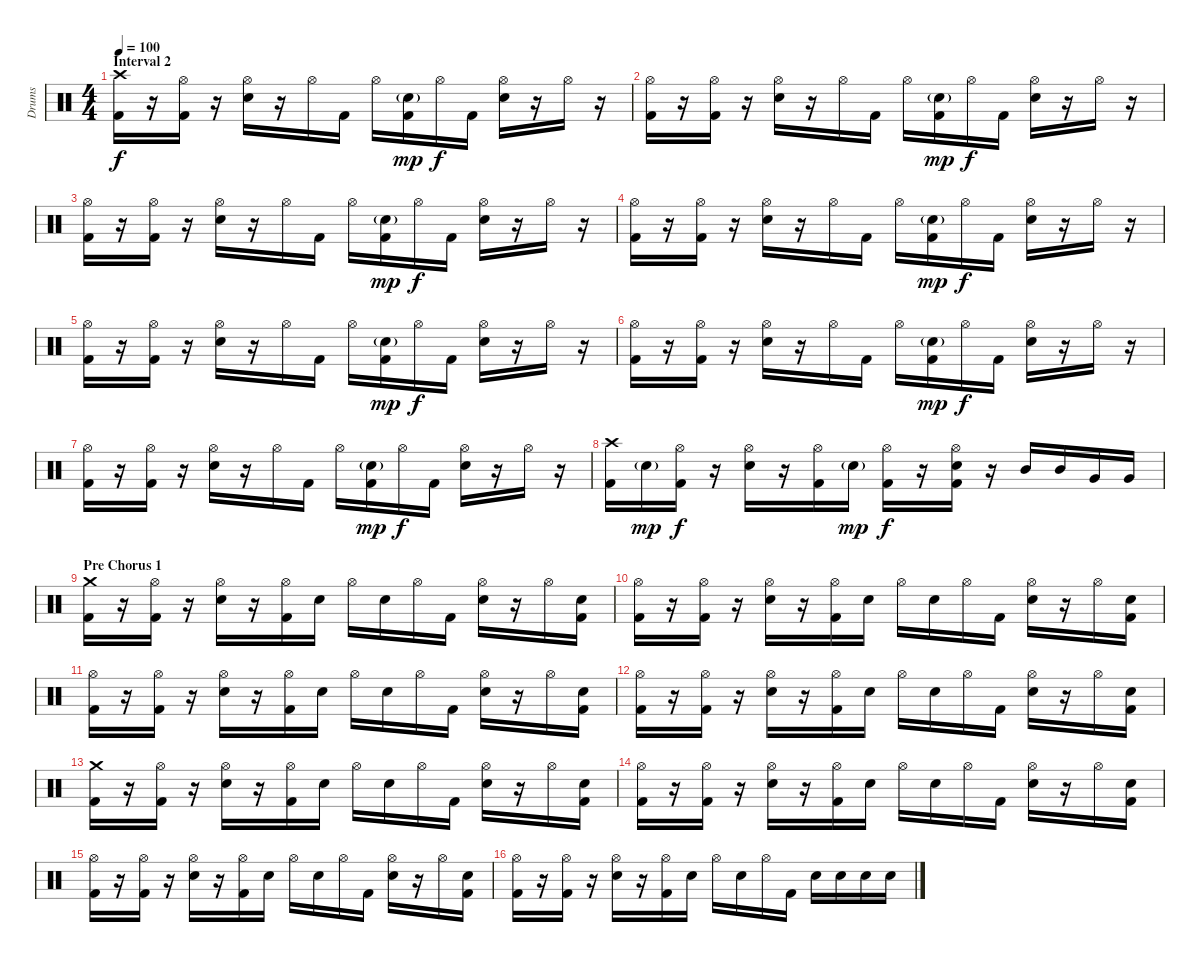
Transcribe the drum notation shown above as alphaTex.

\track ("Drums" "Drums") {instrument percussion}
\staff {score}
\articulation defaults
\ts (4 4)
\section ("" "Interval 2")
\tempo 100
\clef neutral
\ks c
("Crash high (hit)" "Kick (hit) 2").16{dy f} r.16 ("Hi-Hat (open)" "Kick (hit) 2").16 r.16 ("Hi-Hat (open)" "Snare (hit) 2").16 r.16 "Hi-Hat (open)".16 "Kick (hit) 2".16 "Hi-Hat (open)".16 ("Snare (hit) 2"{g} "Kick (hit) 2").16{dy mp} "Hi-Hat (open)".16{dy f} "Kick (hit) 2".16 ("Hi-Hat (open)" "Snare (hit) 2").16 r.16 "Hi-Hat (open)".16 r.16 |
("Hi-Hat (open)" "Kick (hit) 2").16 r.16 ("Hi-Hat (open)" "Kick (hit) 2").16 r.16 ("Hi-Hat (open)" "Snare (hit) 2").16 r.16 "Hi-Hat (open)".16 "Kick (hit) 2".16 "Hi-Hat (open)".16 ("Snare (hit) 2"{g} "Kick (hit) 2").16{dy mp} "Hi-Hat (open)".16{dy f} "Kick (hit) 2".16 ("Hi-Hat (open)" "Snare (hit) 2").16 r.16 "Hi-Hat (open)".16 r.16 |
("Hi-Hat (open)" "Kick (hit) 2").16 r.16 ("Hi-Hat (open)" "Kick (hit) 2").16 r.16 ("Hi-Hat (open)" "Snare (hit) 2").16 r.16 "Hi-Hat (open)".16 "Kick (hit) 2".16 "Hi-Hat (open)".16 ("Snare (hit) 2"{g} "Kick (hit) 2").16{dy mp} "Hi-Hat (open)".16{dy f} "Kick (hit) 2".16 ("Hi-Hat (open)" "Snare (hit) 2").16 r.16 "Hi-Hat (open)".16 r.16 |
("Hi-Hat (open)" "Kick (hit) 2").16 r.16 ("Hi-Hat (open)" "Kick (hit) 2").16 r.16 ("Hi-Hat (open)" "Snare (hit) 2").16 r.16 "Hi-Hat (open)".16 "Kick (hit) 2".16 "Hi-Hat (open)".16 ("Snare (hit) 2"{g} "Kick (hit) 2").16{dy mp} "Hi-Hat (open)".16{dy f} "Kick (hit) 2".16 ("Hi-Hat (open)" "Snare (hit) 2").16 r.16 "Hi-Hat (open)".16 r.16 |
("Hi-Hat (open)" "Kick (hit) 2").16 r.16 ("Hi-Hat (open)" "Kick (hit) 2").16 r.16 ("Hi-Hat (open)" "Snare (hit) 2").16 r.16 "Hi-Hat (open)".16 "Kick (hit) 2".16 "Hi-Hat (open)".16 ("Snare (hit) 2"{g} "Kick (hit) 2").16{dy mp} "Hi-Hat (open)".16{dy f} "Kick (hit) 2".16 ("Hi-Hat (open)" "Snare (hit) 2").16 r.16 "Hi-Hat (open)".16 r.16 |
("Hi-Hat (open)" "Kick (hit) 2").16 r.16 ("Hi-Hat (open)" "Kick (hit) 2").16 r.16 ("Hi-Hat (open)" "Snare (hit) 2").16 r.16 "Hi-Hat (open)".16 "Kick (hit) 2".16 "Hi-Hat (open)".16 ("Snare (hit) 2"{g} "Kick (hit) 2").16{dy mp} "Hi-Hat (open)".16{dy f} "Kick (hit) 2".16 ("Hi-Hat (open)" "Snare (hit) 2").16 r.16 "Hi-Hat (open)".16 r.16 |
("Hi-Hat (open)" "Kick (hit) 2").16 r.16 ("Hi-Hat (open)" "Kick (hit) 2").16 r.16 ("Hi-Hat (open)" "Snare (hit) 2").16 r.16 "Hi-Hat (open)".16 "Kick (hit) 2".16 "Hi-Hat (open)".16 ("Snare (hit) 2"{g} "Kick (hit) 2").16{dy mp} "Hi-Hat (open)".16{dy f} "Kick (hit) 2".16 ("Hi-Hat (open)" "Snare (hit) 2").16 r.16 "Hi-Hat (open)".16 r.16 |
("Crash high (hit)" "Kick (hit) 2").16 "Snare (hit) 2"{g}.16{dy mp} ("Hi-Hat (open)" "Kick (hit) 2").16{dy f} r.16 ("Hi-Hat (open)" "Snare (hit) 2").16 r.16 ("Hi-Hat (open)" "Kick (hit) 2").16 "Snare (hit) 2"{g}.16{dy mp} ("Hi-Hat (open)" "Kick (hit) 2").16{dy f} r.16 ("Hi-Hat (open)" "Snare (hit) 2" "Kick (hit) 2").16 r.16 "Mid Tom (hit)".16 "Mid Tom (hit)".16 "Very Low Tom (hit)".16 "Very Low Tom (hit)".16 |
\section ("" "Pre Chorus 1")
("Crash medium (hit)" "Kick (hit) 2").16 r.16 ("Hi-Hat (open)" "Kick (hit) 2").16 r.16 ("Hi-Hat (open)" "Snare (hit) 2").16 r.16 ("Hi-Hat (open)" "Kick (hit) 2").16 "Snare (hit) 2".16 "Hi-Hat (open)".16 "Snare (hit) 2".16 "Hi-Hat (open)".16 "Kick (hit) 2".16 ("Hi-Hat (open)" "Snare (hit) 2").16 r.16 "Hi-Hat (open)".16 ("Snare (hit) 2" "Kick (hit) 2").16 |
("Hi-Hat (open)" "Kick (hit) 2").16 r.16 ("Hi-Hat (open)" "Kick (hit) 2").16 r.16 ("Hi-Hat (open)" "Snare (hit) 2").16 r.16 ("Hi-Hat (open)" "Kick (hit) 2").16 "Snare (hit) 2".16 "Hi-Hat (open)".16 "Snare (hit) 2".16 "Hi-Hat (open)".16 "Kick (hit) 2".16 ("Hi-Hat (open)" "Snare (hit) 2").16 r.16 "Hi-Hat (open)".16 ("Snare (hit) 2" "Kick (hit) 2").16 |
("Hi-Hat (open)" "Kick (hit) 2").16 r.16 ("Hi-Hat (open)" "Kick (hit) 2").16 r.16 ("Hi-Hat (open)" "Snare (hit) 2").16 r.16 ("Hi-Hat (open)" "Kick (hit) 2").16 "Snare (hit) 2".16 "Hi-Hat (open)".16 "Snare (hit) 2".16 "Hi-Hat (open)".16 "Kick (hit) 2".16 ("Hi-Hat (open)" "Snare (hit) 2").16 r.16 "Hi-Hat (open)".16 ("Snare (hit) 2" "Kick (hit) 2").16 |
("Hi-Hat (open)" "Kick (hit) 2").16 r.16 ("Hi-Hat (open)" "Kick (hit) 2").16 r.16 ("Hi-Hat (open)" "Snare (hit) 2").16 r.16 ("Hi-Hat (open)" "Kick (hit) 2").16 "Snare (hit) 2".16 "Hi-Hat (open)".16 "Snare (hit) 2".16 "Hi-Hat (open)".16 "Kick (hit) 2".16 ("Hi-Hat (open)" "Snare (hit) 2").16 r.16 "Hi-Hat (open)".16 ("Snare (hit) 2" "Kick (hit) 2").16 |
("Crash medium (hit)" "Kick (hit) 2").16 r.16 ("Hi-Hat (open)" "Kick (hit) 2").16 r.16 ("Hi-Hat (open)" "Snare (hit) 2").16 r.16 ("Hi-Hat (open)" "Kick (hit) 2").16 "Snare (hit) 2".16 "Hi-Hat (open)".16 "Snare (hit) 2".16 "Hi-Hat (open)".16 "Kick (hit) 2".16 ("Hi-Hat (open)" "Snare (hit) 2").16 r.16 "Hi-Hat (open)".16 ("Snare (hit) 2" "Kick (hit) 2").16 |
("Hi-Hat (open)" "Kick (hit) 2").16 r.16 ("Hi-Hat (open)" "Kick (hit) 2").16 r.16 ("Hi-Hat (open)" "Snare (hit) 2").16 r.16 ("Hi-Hat (open)" "Kick (hit) 2").16 "Snare (hit) 2".16 "Hi-Hat (open)".16 "Snare (hit) 2".16 "Hi-Hat (open)".16 "Kick (hit) 2".16 ("Hi-Hat (open)" "Snare (hit) 2").16 r.16 "Hi-Hat (open)".16 ("Snare (hit) 2" "Kick (hit) 2").16 |
("Hi-Hat (open)" "Kick (hit) 2").16 r.16 ("Hi-Hat (open)" "Kick (hit) 2").16 r.16 ("Hi-Hat (open)" "Snare (hit) 2").16 r.16 ("Hi-Hat (open)" "Kick (hit) 2").16 "Snare (hit) 2".16 "Hi-Hat (open)".16 "Snare (hit) 2".16 "Hi-Hat (open)".16 "Kick (hit) 2".16 ("Hi-Hat (open)" "Snare (hit) 2").16 r.16 "Hi-Hat (open)".16 ("Snare (hit) 2" "Kick (hit) 2").16 |
("Hi-Hat (open)" "Kick (hit) 2").16 r.16 ("Hi-Hat (open)" "Kick (hit) 2").16 r.16 ("Hi-Hat (open)" "Snare (hit) 2").16 r.16 ("Hi-Hat (open)" "Kick (hit) 2").16 "Snare (hit) 2".16 "Hi-Hat (open)".16 "Snare (hit) 2".16 "Hi-Hat (open)".16 "Kick (hit) 2".16 "Snare (hit) 2".16 "Snare (hit) 2".16 "Snare (hit) 2".16 "Snare (hit) 2".16
